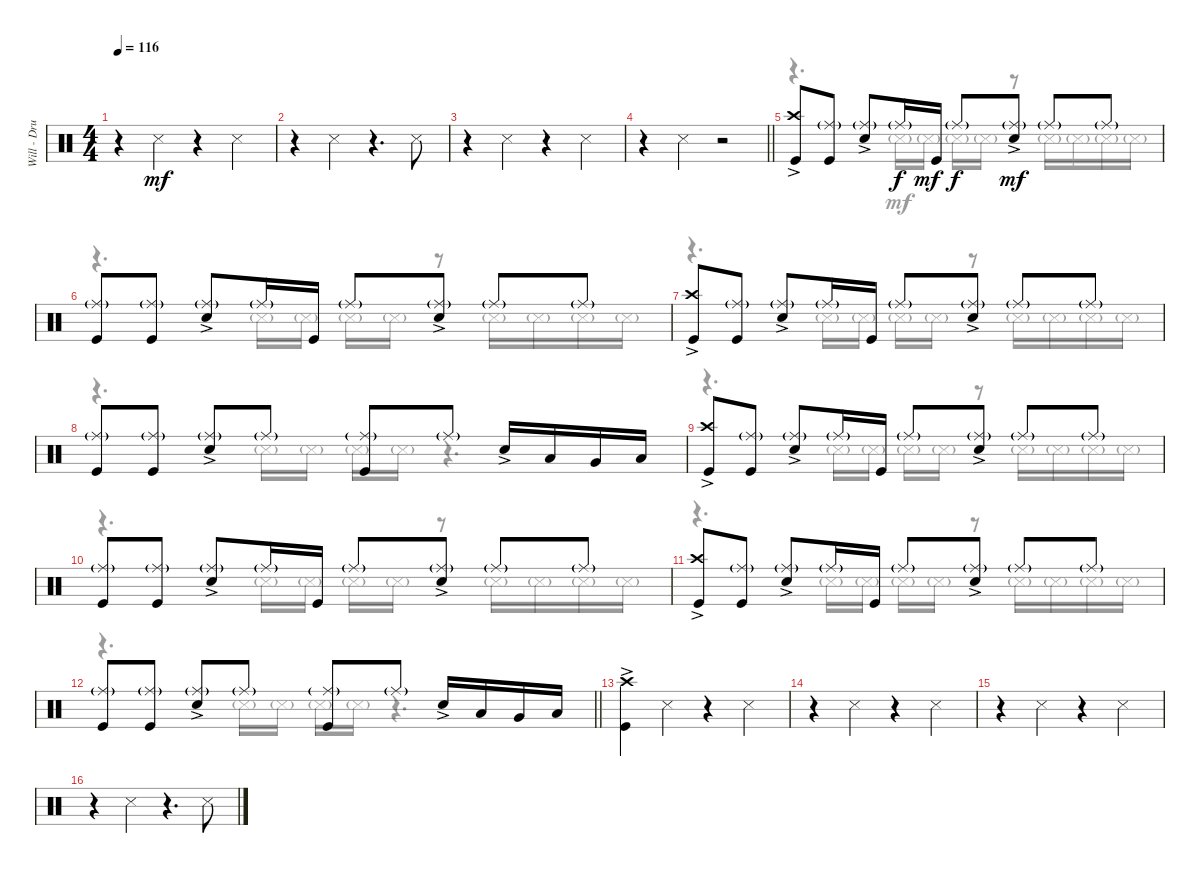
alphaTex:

\track ("Will - Drumkit" "Will - Dru") {instrument percussion}
\staff {score}
\articulation defaults
\voice
\ts (4 4)
\tempo 116
\clef neutral
\ks c
r.4{dy mf} "Snare (side stick) 3".4 r.4 "Snare (side stick) 3".4 |
r.4 "Snare (side stick) 3".4 r.4{d} "Snare (side stick) 3".8 |
r.4 "Snare (side stick) 3".4 r.4 "Snare (side stick) 3".4 |
\barLineRight lightlight
r.4 "Snare (side stick) 3".4 r.2 |
("Kick (hit)" "Crash high (hit)"{ac}).8 ("Kick (hit)" "Ride (middle)"{g}).8 ("Snare (hit) 2"{ac} "Ride (middle)"{g}).8 "Ride (middle)"{g}.16{dy f} "Kick (hit)".16{dy mf} "Ride (middle)"{g}.8{dy f} ("Ride (middle)"{g} "Snare (hit) 2"{ac}).8{dy mf} "Ride (middle)"{g}.8 "Ride (middle)"{g}.8 |
("Kick (hit)" "Ride (middle)"{g}).8 ("Kick (hit)" "Ride (middle)"{g}).8 ("Snare (hit) 2"{ac} "Ride (middle)"{g}).8 "Ride (middle)"{g}.16 "Kick (hit)".16 "Ride (middle)"{g}.8 ("Ride (middle)"{g} "Snare (hit) 2"{ac}).8 "Ride (middle)"{g}.8 "Ride (middle)"{g}.8 |
("Kick (hit)" "Crash high (hit)"{ac}).8 ("Kick (hit)" "Ride (middle)"{g}).8 ("Snare (hit) 2"{ac} "Ride (middle)"{g}).8 "Ride (middle)"{g}.16 "Kick (hit)".16 "Ride (middle)"{g}.8 ("Ride (middle)"{g} "Snare (hit) 2"{ac}).8 "Ride (middle)"{g}.8 "Ride (middle)"{g}.8 |
("Kick (hit)" "Ride (middle)"{g}).8 ("Kick (hit)" "Ride (middle)"{g}).8 ("Snare (hit) 2"{ac} "Ride (middle)"{g}).8 "Ride (middle)"{g}.8 ("Kick (hit)" "Ride (middle)"{g}).8 "Ride (middle)"{g}.8 "Snare (hit) 2"{ac}.16 "Low Tom (hit)".16 "Very Low Tom (hit)".16 "Low Floor Tom (hit)".16 |
("Kick (hit)" "Crash high (hit)"{ac}).8 ("Kick (hit)" "Ride (middle)"{g}).8 ("Snare (hit) 2"{ac} "Ride (middle)"{g}).8 "Ride (middle)"{g}.16 "Kick (hit)".16 "Ride (middle)"{g}.8 ("Ride (middle)"{g} "Snare (hit) 2"{ac}).8 "Ride (middle)"{g}.8 "Ride (middle)"{g}.8 |
("Kick (hit)" "Ride (middle)"{g}).8 ("Kick (hit)" "Ride (middle)"{g}).8 ("Snare (hit) 2"{ac} "Ride (middle)"{g}).8 "Ride (middle)"{g}.16 "Kick (hit)".16 "Ride (middle)"{g}.8 ("Ride (middle)"{g} "Snare (hit) 2"{ac}).8 "Ride (middle)"{g}.8 "Ride (middle)"{g}.8 |
("Kick (hit)" "Crash high (hit)"{ac}).8 ("Kick (hit)" "Ride (middle)"{g}).8 ("Snare (hit) 2"{ac} "Ride (middle)"{g}).8 "Ride (middle)"{g}.16 "Kick (hit)".16 "Ride (middle)"{g}.8 ("Ride (middle)"{g} "Snare (hit) 2"{ac}).8 "Ride (middle)"{g}.8 "Ride (middle)"{g}.8 |
\barLineRight lightlight
("Kick (hit)" "Ride (middle)"{g}).8 ("Kick (hit)" "Ride (middle)"{g}).8 ("Snare (hit) 2"{ac} "Ride (middle)"{g}).8 "Ride (middle)"{g}.8 ("Kick (hit)" "Ride (middle)"{g}).8 "Ride (middle)"{g}.8 "Snare (hit) 2"{ac}.16 "Low Tom (hit)".16 "Very Low Tom (hit)".16 "Low Floor Tom (hit)".16 |
("Kick (hit)" "Crash high (hit)"{ac}).4 "Snare (side stick) 3".4 r.4 "Snare (side stick) 3".4 |
r.4 "Snare (side stick) 3".4 r.4 "Snare (side stick) 3".4 |
r.4 "Snare (side stick) 3".4 r.4 "Snare (side stick) 3".4 |
r.4 "Snare (side stick) 3".4 r.4{d} "Snare (side stick) 3".8
\voice
\clef neutral
\ottava regular
\simile none
\ks c
|
|
|
\barLineRight lightlight
|
r.4{d} "Snare (side stick) 3"{g}.16 "Snare (side stick) 3"{g}.16 "Snare (side stick) 3"{g}.16 "Snare (side stick) 3"{g}.16 r.8 "Snare (side stick) 3"{g}.16 "Snare (side stick) 3"{g}.16 "Snare (side stick) 3"{g}.16 "Snare (side stick) 3"{g}.16 |
r.4{d} "Snare (side stick) 3"{g}.16 "Snare (side stick) 3"{g}.16 "Snare (side stick) 3"{g}.16 "Snare (side stick) 3"{g}.16 r.8 "Snare (side stick) 3"{g}.16 "Snare (side stick) 3"{g}.16 "Snare (side stick) 3"{g}.16 "Snare (side stick) 3"{g}.16 |
r.4{d} "Snare (side stick) 3"{g}.16 "Snare (side stick) 3"{g}.16 "Snare (side stick) 3"{g}.16 "Snare (side stick) 3"{g}.16 r.8 "Snare (side stick) 3"{g}.16 "Snare (side stick) 3"{g}.16 "Snare (side stick) 3"{g}.16 "Snare (side stick) 3"{g}.16 |
r.4{d} "Snare (side stick) 3"{g}.16 "Snare (side stick) 3"{g}.16 "Snare (side stick) 3"{g}.16 "Snare (side stick) 3"{g}.16 r.4{d} |
r.4{d} "Snare (side stick) 3"{g}.16 "Snare (side stick) 3"{g}.16 "Snare (side stick) 3"{g}.16 "Snare (side stick) 3"{g}.16 r.8 "Snare (side stick) 3"{g}.16 "Snare (side stick) 3"{g}.16 "Snare (side stick) 3"{g}.16 "Snare (side stick) 3"{g}.16 |
r.4{d} "Snare (side stick) 3"{g}.16 "Snare (side stick) 3"{g}.16 "Snare (side stick) 3"{g}.16 "Snare (side stick) 3"{g}.16 r.8 "Snare (side stick) 3"{g}.16 "Snare (side stick) 3"{g}.16 "Snare (side stick) 3"{g}.16 "Snare (side stick) 3"{g}.16 |
r.4{d} "Snare (side stick) 3"{g}.16 "Snare (side stick) 3"{g}.16 "Snare (side stick) 3"{g}.16 "Snare (side stick) 3"{g}.16 r.8 "Snare (side stick) 3"{g}.16 "Snare (side stick) 3"{g}.16 "Snare (side stick) 3"{g}.16 "Snare (side stick) 3"{g}.16 |
\barLineRight lightlight
r.4{d} "Snare (side stick) 3"{g}.16 "Snare (side stick) 3"{g}.16 "Snare (side stick) 3"{g}.16 "Snare (side stick) 3"{g}.16 r.4{d} |
|
|
|
